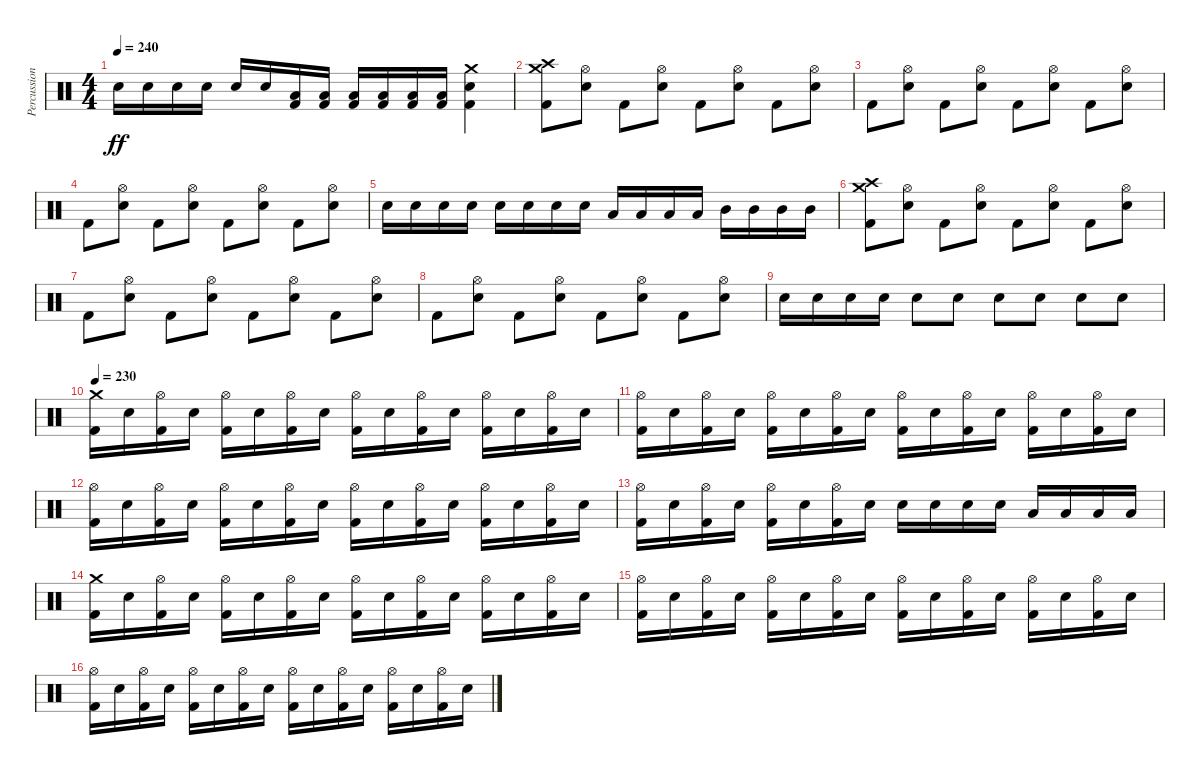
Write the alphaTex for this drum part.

\track ("Percussion" "Percussion") {instrument percussion}
\staff {score}
\articulation defaults
\ts (4 4)
\tempo 240
\clef neutral
\ks c "Electric Snare (hit)".16{dy ff} "Electric Snare (hit)".16 "Electric Snare (hit)".16 "Electric Snare (hit)".16 "Electric Snare (hit)".16 "Electric Snare (hit)".16
("Kick (hit) 2" "Low Tom (hit)").16 ("Kick (hit) 2" "Low Tom (hit)").16 ("Kick (hit) 2" "Low Tom (hit)").16 ("Kick (hit) 2" "Low Tom (hit)").16 ("Kick (hit) 2" "Low Tom (hit)").16 ("Kick (hit) 2" "Low Tom (hit)").16 ("Kick (hit) 2" "Electric Snare (hit)" "Crash medium (hit)").4 |
("Kick (hit) 2" "Crash medium (hit)" "Crash high (hit)").8 ("Electric Snare (hit)" "Hi-Hat (open)").8 "Kick (hit) 2".8 ("Electric Snare (hit)" "Hi-Hat (open)").8 "Kick (hit) 2".8 ("Electric Snare (hit)" "Hi-Hat (open)").8 "Kick (hit) 2".8 ("Electric Snare (hit)" "Hi-Hat (open)").8 |
"Kick (hit) 2".8 ("Electric Snare (hit)" "Hi-Hat (open)").8 "Kick (hit) 2".8 ("Electric Snare (hit)" "Hi-Hat (open)").8 "Kick (hit) 2".8 ("Electric Snare (hit)" "Hi-Hat (open)").8 "Kick (hit) 2".8 ("Electric Snare (hit)" "Hi-Hat (open)").8 |
"Kick (hit) 2".8 ("Electric Snare (hit)" "Hi-Hat (open)").8 "Kick (hit) 2".8 ("Electric Snare (hit)" "Hi-Hat (open)").8 "Kick (hit) 2".8 ("Electric Snare (hit)" "Hi-Hat (open)").8 "Kick (hit) 2".8 ("Electric Snare (hit)" "Hi-Hat (open)").8 |
"Electric Snare (hit)".16 "Electric Snare (hit)".16 "Electric Snare (hit)".16 "Electric Snare (hit)".16 "Electric Snare (hit)".16 "Electric Snare (hit)".16 "Electric Snare (hit)".16 "Electric Snare (hit)".16 "Low Tom (hit)".16 "Low Tom (hit)".16 "Low Tom (hit)".16 "Low Tom (hit)".16 "Mid Tom (hit)".16 "Mid Tom (hit)".16 "Mid Tom (hit)".16 "Mid Tom (hit)".16 |
("Kick (hit) 2" "Crash medium (hit)" "Crash high (hit)").8 ("Electric Snare (hit)" "Hi-Hat (open)").8 "Kick (hit) 2".8 ("Electric Snare (hit)" "Hi-Hat (open)").8 "Kick (hit) 2".8 ("Electric Snare (hit)" "Hi-Hat (open)").8 "Kick (hit) 2".8 ("Electric Snare (hit)" "Hi-Hat (open)").8 |
"Kick (hit) 2".8 ("Electric Snare (hit)" "Hi-Hat (open)").8 "Kick (hit) 2".8 ("Electric Snare (hit)" "Hi-Hat (open)").8 "Kick (hit) 2".8 ("Electric Snare (hit)" "Hi-Hat (open)").8 "Kick (hit) 2".8 ("Electric Snare (hit)" "Hi-Hat (open)").8 |
"Kick (hit) 2".8 ("Electric Snare (hit)" "Hi-Hat (open)").8 "Kick (hit) 2".8 ("Electric Snare (hit)" "Hi-Hat (open)").8 "Kick (hit) 2".8 ("Electric Snare (hit)" "Hi-Hat (open)").8 "Kick (hit) 2".8 ("Electric Snare (hit)" "Hi-Hat (open)").8 |
"Electric Snare (hit)".16 "Electric Snare (hit)".16 "Electric Snare (hit)".16 "Electric Snare (hit)".16 "Electric Snare (hit)".8 "Electric Snare (hit)".8 "Electric Snare (hit)".8 "Electric Snare (hit)".8 "Electric Snare (hit)".8 "Electric Snare (hit)".8 |
\tempo 230
("Kick (hit) 2" "Crash medium (hit)").16 "Electric Snare (hit)".16 ("Kick (hit) 2" "Hi-Hat (open)").16 "Electric Snare (hit)".16 ("Kick (hit) 2" "Hi-Hat (open)").16 "Electric Snare (hit)".16 ("Kick (hit) 2" "Hi-Hat (open)").16 "Electric Snare (hit)".16 ("Kick (hit) 2" "Hi-Hat (open)").16 "Electric Snare (hit)".16 ("Kick (hit) 2" "Hi-Hat (open)").16 "Electric Snare (hit)".16 ("Kick (hit) 2" "Hi-Hat (open)").16 "Electric Snare (hit)".16 ("Kick (hit) 2" "Hi-Hat (open)").16 "Electric Snare (hit)".16 |
("Kick (hit) 2" "Hi-Hat (open)").16 "Electric Snare (hit)".16 ("Kick (hit) 2" "Hi-Hat (open)").16 "Electric Snare (hit)".16 ("Kick (hit) 2" "Hi-Hat (open)").16 "Electric Snare (hit)".16 ("Kick (hit) 2" "Hi-Hat (open)").16 "Electric Snare (hit)".16 ("Kick (hit) 2" "Hi-Hat (open)").16 "Electric Snare (hit)".16 ("Kick (hit) 2" "Hi-Hat (open)").16 "Electric Snare (hit)".16 ("Kick (hit) 2" "Hi-Hat (open)").16 "Electric Snare (hit)".16 ("Kick (hit) 2" "Hi-Hat (open)").16 "Electric Snare (hit)".16 |
("Kick (hit) 2" "Hi-Hat (open)").16 "Electric Snare (hit)".16 ("Kick (hit) 2" "Hi-Hat (open)").16 "Electric Snare (hit)".16 ("Kick (hit) 2" "Hi-Hat (open)").16 "Electric Snare (hit)".16 ("Kick (hit) 2" "Hi-Hat (open)").16 "Electric Snare (hit)".16 ("Kick (hit) 2" "Hi-Hat (open)").16 "Electric Snare (hit)".16 ("Kick (hit) 2" "Hi-Hat (open)").16 "Electric Snare (hit)".16 ("Kick (hit) 2" "Hi-Hat (open)").16 "Electric Snare (hit)".16 ("Kick (hit) 2" "Hi-Hat (open)").16 "Electric Snare (hit)".16 |
("Kick (hit) 2" "Hi-Hat (open)").16 "Electric Snare (hit)".16 ("Kick (hit) 2" "Hi-Hat (open)").16 "Electric Snare (hit)".16 ("Kick (hit) 2" "Hi-Hat (open)").16 "Electric Snare (hit)".16 ("Kick (hit) 2" "Hi-Hat (open)").16 "Electric Snare (hit)".16 "Electric Snare (hit)".16 "Electric Snare (hit)".16 "Electric Snare (hit)".16 "Electric Snare (hit)".16 "Low Tom (hit)".16 "Low Tom (hit)".16 "Low Tom (hit)".16 "Low Tom (hit)".16 |
("Kick (hit) 2" "Crash medium (hit)").16 "Electric Snare (hit)".16 ("Kick (hit) 2" "Hi-Hat (open)").16 "Electric Snare (hit)".16 ("Kick (hit) 2" "Hi-Hat (open)").16 "Electric Snare (hit)".16 ("Kick (hit) 2" "Hi-Hat (open)").16 "Electric Snare (hit)".16 ("Kick (hit) 2" "Hi-Hat (open)").16 "Electric Snare (hit)".16 ("Kick (hit) 2" "Hi-Hat (open)").16 "Electric Snare (hit)".16 ("Kick (hit) 2" "Hi-Hat (open)").16 "Electric Snare (hit)".16 ("Kick (hit) 2" "Hi-Hat (open)").16 "Electric Snare (hit)".16 |
("Kick (hit) 2" "Hi-Hat (open)").16 "Electric Snare (hit)".16 ("Kick (hit) 2" "Hi-Hat (open)").16 "Electric Snare (hit)".16 ("Kick (hit) 2" "Hi-Hat (open)").16 "Electric Snare (hit)".16 ("Kick (hit) 2" "Hi-Hat (open)").16 "Electric Snare (hit)".16 ("Kick (hit) 2" "Hi-Hat (open)").16 "Electric Snare (hit)".16 ("Kick (hit) 2" "Hi-Hat (open)").16 "Electric Snare (hit)".16 ("Kick (hit) 2" "Hi-Hat (open)").16 "Electric Snare (hit)".16 ("Kick (hit) 2" "Hi-Hat (open)").16 "Electric Snare (hit)".16 |
("Kick (hit) 2" "Hi-Hat (open)").16 "Electric Snare (hit)".16 ("Kick (hit) 2" "Hi-Hat (open)").16 "Electric Snare (hit)".16 ("Kick (hit) 2" "Hi-Hat (open)").16 "Electric Snare (hit)".16 ("Kick (hit) 2" "Hi-Hat (open)").16 "Electric Snare (hit)".16 ("Kick (hit) 2" "Hi-Hat (open)").16 "Electric Snare (hit)".16 ("Kick (hit) 2" "Hi-Hat (open)").16 "Electric Snare (hit)".16 ("Kick (hit) 2" "Hi-Hat (open)").16 "Electric Snare (hit)".16 ("Kick (hit) 2" "Hi-Hat (open)").16 "Electric Snare (hit)".16
